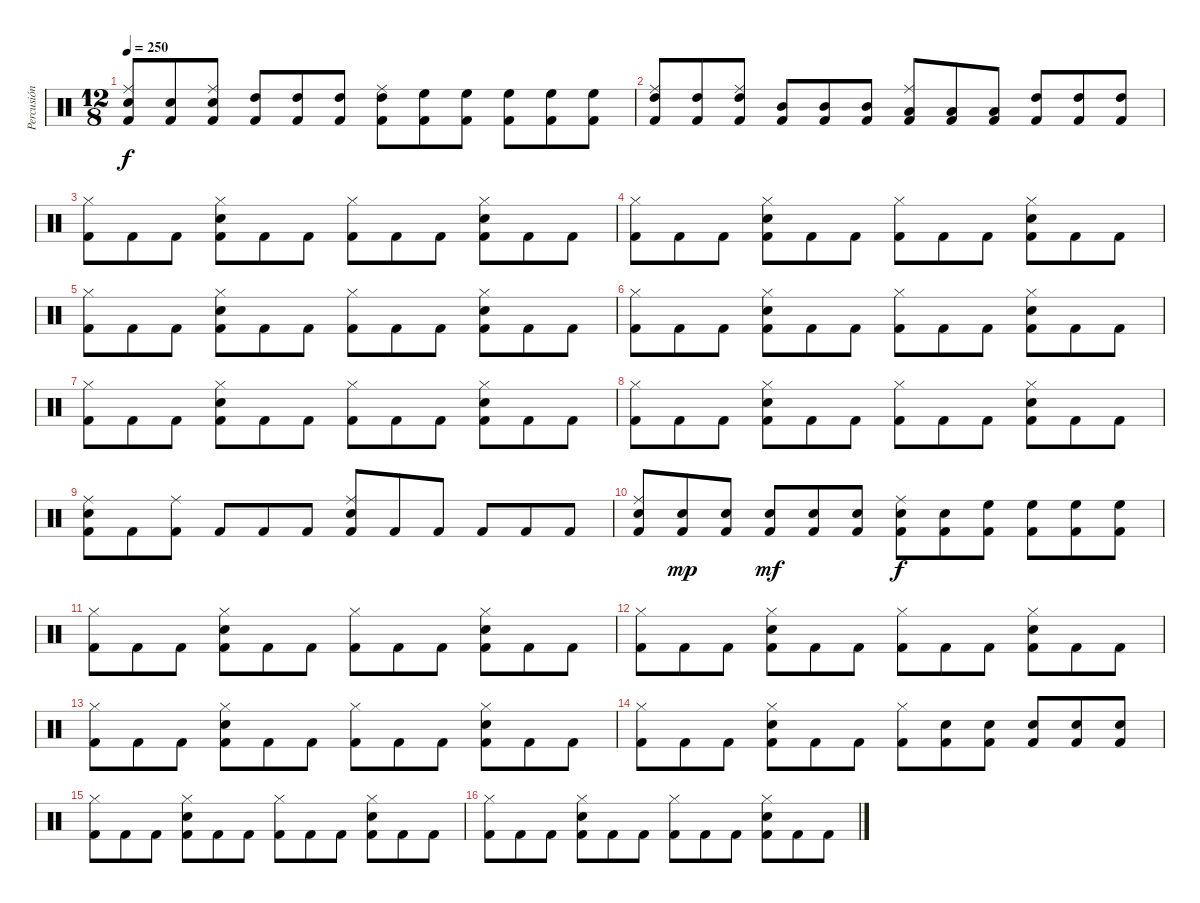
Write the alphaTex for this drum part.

\track ("Percusión" "Percusión") {instrument percussion}
\staff {score}
\articulation defaults
\ts (12 8)
\tempo 250
\clef neutral
\ks c
("Kick (hit) 2" "Ride (middle)" "Snare (hit) 2").8{dy f} ("Kick (hit) 2" "Snare (hit) 2").8 ("Kick (hit) 2" "Ride (middle)" "Snare (hit) 2").8 ("Kick (hit) 2" "High Tom (hit)").8 ("Kick (hit) 2" "High Tom (hit)").8 ("Kick (hit) 2" "High Tom (hit)").8 ("Kick (hit) 2" "Ride (middle)" "High Tom (hit)").8 ("Kick (hit) 2" "High Floor Tom (hit)").8 ("Kick (hit) 2" "High Floor Tom (hit)").8 ("Kick (hit) 2" "High Floor Tom (hit)").8 ("Kick (hit) 2" "High Floor Tom (hit)").8 ("Kick (hit) 2" "High Floor Tom (hit)").8 |
("Kick (hit) 2" "Ride (middle)" "High Tom (hit)").8 ("Kick (hit) 2" "High Tom (hit)").8 ("Kick (hit) 2" "Ride (middle)" "High Tom (hit)").8 ("Kick (hit) 2" "Mid Tom (hit)").8 ("Kick (hit) 2" "Mid Tom (hit)").8 ("Kick (hit) 2" "Mid Tom (hit)").8 ("Kick (hit) 2" "Ride (middle)" "Low Tom (hit)").8 ("Kick (hit) 2" "Low Tom (hit)").8 ("Kick (hit) 2" "Low Tom (hit)").8 ("Kick (hit) 2" "High Tom (hit)").8 ("Kick (hit) 2" "High Tom (hit)").8 ("Kick (hit) 2" "High Tom (hit)").8 |
("Kick (hit) 2" "Hi-Hat (closed)").8 "Kick (hit) 2".8 "Kick (hit) 2".8 ("Kick (hit) 2" "Hi-Hat (closed)" "Snare (hit) 2").8 "Kick (hit) 2".8 "Kick (hit) 2".8 ("Kick (hit) 2" "Hi-Hat (closed)").8 "Kick (hit) 2".8 "Kick (hit) 2".8 ("Kick (hit) 2" "Hi-Hat (closed)" "Snare (hit) 2").8 "Kick (hit) 2".8 "Kick (hit) 2".8 |
("Kick (hit) 2" "Hi-Hat (closed)").8 "Kick (hit) 2".8 "Kick (hit) 2".8 ("Kick (hit) 2" "Hi-Hat (closed)" "Snare (hit) 2").8 "Kick (hit) 2".8 "Kick (hit) 2".8 ("Kick (hit) 2" "Hi-Hat (closed)").8 "Kick (hit) 2".8 "Kick (hit) 2".8 ("Kick (hit) 2" "Hi-Hat (closed)" "Snare (hit) 2").8 "Kick (hit) 2".8 "Kick (hit) 2".8 |
("Kick (hit) 2" "Hi-Hat (closed)").8 "Kick (hit) 2".8 "Kick (hit) 2".8 ("Kick (hit) 2" "Hi-Hat (closed)" "Snare (hit) 2").8 "Kick (hit) 2".8 "Kick (hit) 2".8 ("Kick (hit) 2" "Hi-Hat (closed)").8 "Kick (hit) 2".8 "Kick (hit) 2".8 ("Kick (hit) 2" "Hi-Hat (closed)" "Snare (hit) 2").8 "Kick (hit) 2".8 "Kick (hit) 2".8 |
("Kick (hit) 2" "Hi-Hat (closed)").8 "Kick (hit) 2".8 "Kick (hit) 2".8 ("Kick (hit) 2" "Hi-Hat (closed)" "Snare (hit) 2").8 "Kick (hit) 2".8 "Kick (hit) 2".8 ("Kick (hit) 2" "Hi-Hat (closed)").8 "Kick (hit) 2".8 "Kick (hit) 2".8 ("Kick (hit) 2" "Hi-Hat (closed)" "Snare (hit) 2").8 "Kick (hit) 2".8 "Kick (hit) 2".8 |
("Kick (hit) 2" "Hi-Hat (closed)").8 "Kick (hit) 2".8 "Kick (hit) 2".8 ("Kick (hit) 2" "Hi-Hat (closed)" "Snare (hit) 2").8 "Kick (hit) 2".8 "Kick (hit) 2".8 ("Kick (hit) 2" "Hi-Hat (closed)").8 "Kick (hit) 2".8 "Kick (hit) 2".8 ("Kick (hit) 2" "Hi-Hat (closed)" "Snare (hit) 2").8 "Kick (hit) 2".8 "Kick (hit) 2".8 |
("Kick (hit) 2" "Hi-Hat (closed)").8 "Kick (hit) 2".8 "Kick (hit) 2".8 ("Kick (hit) 2" "Hi-Hat (closed)" "Snare (hit) 2").8 "Kick (hit) 2".8 "Kick (hit) 2".8 ("Kick (hit) 2" "Hi-Hat (closed)").8 "Kick (hit) 2".8 "Kick (hit) 2".8 ("Kick (hit) 2" "Hi-Hat (closed)" "Snare (hit) 2").8 "Kick (hit) 2".8 "Kick (hit) 2".8 |
("Kick (hit) 2" "Ride (middle)" "Snare (hit) 2").8 "Kick (hit) 2".8 ("Kick (hit) 2" "Ride (middle)").8 "Kick (hit) 2".8 "Kick (hit) 2".8 "Kick (hit) 2".8 ("Kick (hit) 2" "Ride (middle)" "Snare (hit) 2").8 "Kick (hit) 2".8 "Kick (hit) 2".8 "Kick (hit) 2".8 "Kick (hit) 2".8 "Kick (hit) 2".8 |
("Kick (hit) 2" "Ride (middle)" "Snare (hit) 2").8 ("Kick (hit) 2" "Snare (hit) 2").8{dy mp} ("Kick (hit) 2" "Snare (hit) 2").8 ("Kick (hit) 2" "Snare (hit) 2").8{dy mf} ("Kick (hit) 2" "Snare (hit) 2").8 ("Kick (hit) 2" "Snare (hit) 2").8 ("Kick (hit) 2" "Ride (middle)" "Snare (hit) 2").8{dy f} ("Kick (hit) 2" "Snare (hit) 2").8 ("Kick (hit) 2" "High Floor Tom (hit)").8 ("Kick (hit) 2" "High Floor Tom (hit)").8 ("Kick (hit) 2" "High Floor Tom (hit)").8 ("Kick (hit) 2" "High Floor Tom (hit)").8 |
("Kick (hit) 2" "Hi-Hat (closed)").8 "Kick (hit) 2".8 "Kick (hit) 2".8 ("Kick (hit) 2" "Hi-Hat (closed)" "Snare (hit) 2").8 "Kick (hit) 2".8 "Kick (hit) 2".8 ("Kick (hit) 2" "Hi-Hat (closed)").8 "Kick (hit) 2".8 "Kick (hit) 2".8 ("Kick (hit) 2" "Hi-Hat (closed)" "Snare (hit) 2").8 "Kick (hit) 2".8 "Kick (hit) 2".8 |
("Kick (hit) 2" "Hi-Hat (closed)").8 "Kick (hit) 2".8 "Kick (hit) 2".8 ("Kick (hit) 2" "Hi-Hat (closed)" "Snare (hit) 2").8 "Kick (hit) 2".8 "Kick (hit) 2".8 ("Kick (hit) 2" "Hi-Hat (closed)").8 "Kick (hit) 2".8 "Kick (hit) 2".8 ("Kick (hit) 2" "Hi-Hat (closed)" "Snare (hit) 2").8 "Kick (hit) 2".8 "Kick (hit) 2".8 |
("Kick (hit) 2" "Hi-Hat (closed)").8 "Kick (hit) 2".8 "Kick (hit) 2".8 ("Kick (hit) 2" "Hi-Hat (closed)" "Snare (hit) 2").8 "Kick (hit) 2".8 "Kick (hit) 2".8 ("Kick (hit) 2" "Hi-Hat (closed)").8 "Kick (hit) 2".8 "Kick (hit) 2".8 ("Kick (hit) 2" "Hi-Hat (closed)" "Snare (hit) 2").8 "Kick (hit) 2".8 "Kick (hit) 2".8 |
("Kick (hit) 2" "Hi-Hat (closed)").8 "Kick (hit) 2".8 "Kick (hit) 2".8 ("Kick (hit) 2" "Hi-Hat (closed)" "Snare (hit) 2").8 "Kick (hit) 2".8 "Kick (hit) 2".8 ("Kick (hit) 2" "Hi-Hat (closed)").8 ("Kick (hit) 2" "Snare (hit) 2").8 ("Kick (hit) 2" "Snare (hit) 2").8 ("Kick (hit) 2" "Snare (hit) 2").8 ("Kick (hit) 2" "Snare (hit) 2").8 ("Kick (hit) 2" "Snare (hit) 2").8 |
("Kick (hit) 2" "Hi-Hat (closed)").8 "Kick (hit) 2".8 "Kick (hit) 2".8 ("Kick (hit) 2" "Hi-Hat (closed)" "Snare (hit) 2").8 "Kick (hit) 2".8 "Kick (hit) 2".8 ("Kick (hit) 2" "Hi-Hat (closed)").8 "Kick (hit) 2".8 "Kick (hit) 2".8 ("Kick (hit) 2" "Hi-Hat (closed)" "Snare (hit) 2").8 "Kick (hit) 2".8 "Kick (hit) 2".8 |
("Kick (hit) 2" "Hi-Hat (closed)").8 "Kick (hit) 2".8 "Kick (hit) 2".8 ("Kick (hit) 2" "Hi-Hat (closed)" "Snare (hit) 2").8 "Kick (hit) 2".8 "Kick (hit) 2".8 ("Kick (hit) 2" "Hi-Hat (closed)").8 "Kick (hit) 2".8 "Kick (hit) 2".8 ("Kick (hit) 2" "Hi-Hat (closed)" "Snare (hit) 2").8 "Kick (hit) 2".8 "Kick (hit) 2".8
